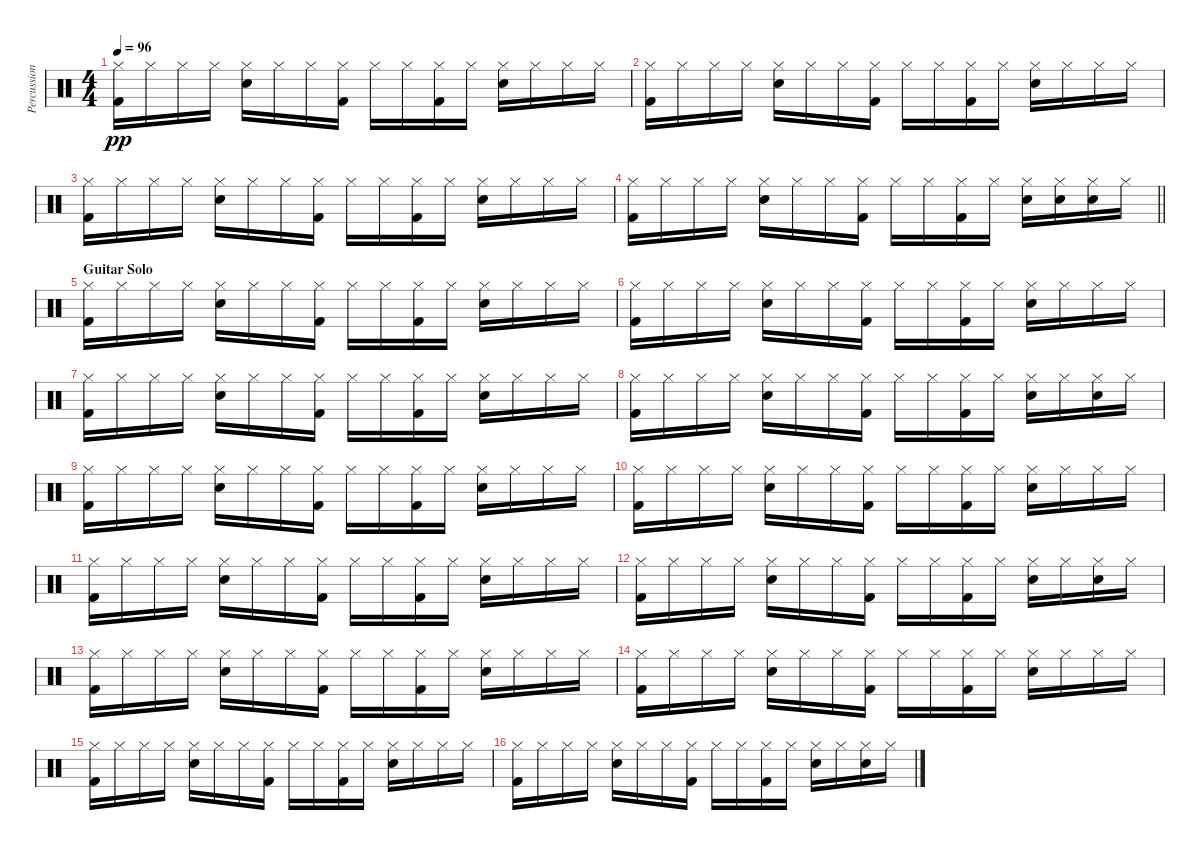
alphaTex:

\track ("Percussion" "Percussion") {instrument percussion}
\staff {score}
\articulation defaults
\ts (4 4)
\tempo 96
\clef neutral
\ks c
("Hi-Hat (closed)" "Kick (hit) 2").16{dy pp} "Hi-Hat (closed)".16 "Hi-Hat (closed)".16 "Hi-Hat (closed)".16 ("Hi-Hat (closed)" "Snare (hit) 2").16 "Hi-Hat (closed)".16 "Hi-Hat (closed)".16 ("Hi-Hat (closed)" "Kick (hit) 2").16 "Hi-Hat (closed)".16 "Hi-Hat (closed)".16 ("Hi-Hat (closed)" "Kick (hit) 2").16 "Hi-Hat (closed)".16 ("Hi-Hat (closed)" "Snare (hit) 2").16 "Hi-Hat (closed)".16 "Hi-Hat (closed)".16 "Hi-Hat (closed)".16 |
("Hi-Hat (closed)" "Kick (hit) 2").16 "Hi-Hat (closed)".16 "Hi-Hat (closed)".16 "Hi-Hat (closed)".16 ("Hi-Hat (closed)" "Snare (hit) 2").16 "Hi-Hat (closed)".16 "Hi-Hat (closed)".16 ("Hi-Hat (closed)" "Kick (hit) 2").16 "Hi-Hat (closed)".16 "Hi-Hat (closed)".16 ("Hi-Hat (closed)" "Kick (hit) 2").16 "Hi-Hat (closed)".16 ("Hi-Hat (closed)" "Snare (hit) 2").16 "Hi-Hat (closed)".16 "Hi-Hat (closed)".16 "Hi-Hat (closed)".16 |
("Hi-Hat (closed)" "Kick (hit) 2").16 "Hi-Hat (closed)".16 "Hi-Hat (closed)".16 "Hi-Hat (closed)".16 ("Hi-Hat (closed)" "Snare (hit) 2").16 "Hi-Hat (closed)".16 "Hi-Hat (closed)".16 ("Hi-Hat (closed)" "Kick (hit) 2").16 "Hi-Hat (closed)".16 "Hi-Hat (closed)".16 ("Hi-Hat (closed)" "Kick (hit) 2").16 "Hi-Hat (closed)".16 ("Hi-Hat (closed)" "Snare (hit) 2").16 "Hi-Hat (closed)".16 "Hi-Hat (closed)".16 "Hi-Hat (closed)".16 |
\barLineRight lightlight
("Hi-Hat (closed)" "Kick (hit) 2").16 "Hi-Hat (closed)".16 "Hi-Hat (closed)".16 "Hi-Hat (closed)".16 ("Hi-Hat (closed)" "Snare (hit) 2").16 "Hi-Hat (closed)".16 "Hi-Hat (closed)".16 ("Hi-Hat (closed)" "Kick (hit) 2").16 "Hi-Hat (closed)".16 "Hi-Hat (closed)".16 ("Hi-Hat (closed)" "Kick (hit) 2").16 "Hi-Hat (closed)".16 ("Hi-Hat (closed)" "Snare (hit) 2").16 ("Hi-Hat (closed)" "Snare (hit) 2").16 ("Hi-Hat (closed)" "Snare (hit) 2").16 "Hi-Hat (closed)".16 |
\section ("" "Guitar Solo")
("Hi-Hat (closed)" "Kick (hit) 2").16 "Hi-Hat (closed)".16 "Hi-Hat (closed)".16 "Hi-Hat (closed)".16 ("Hi-Hat (closed)" "Snare (hit) 2").16 "Hi-Hat (closed)".16 "Hi-Hat (closed)".16 ("Hi-Hat (closed)" "Kick (hit) 2").16 "Hi-Hat (closed)".16 "Hi-Hat (closed)".16 ("Hi-Hat (closed)" "Kick (hit) 2").16 "Hi-Hat (closed)".16 ("Hi-Hat (closed)" "Snare (hit) 2").16 "Hi-Hat (closed)".16 "Hi-Hat (closed)".16 "Hi-Hat (closed)".16 |
("Hi-Hat (closed)" "Kick (hit) 2").16 "Hi-Hat (closed)".16 "Hi-Hat (closed)".16 "Hi-Hat (closed)".16 ("Hi-Hat (closed)" "Snare (hit) 2").16 "Hi-Hat (closed)".16 "Hi-Hat (closed)".16 ("Hi-Hat (closed)" "Kick (hit) 2").16 "Hi-Hat (closed)".16 "Hi-Hat (closed)".16 ("Hi-Hat (closed)" "Kick (hit) 2").16 "Hi-Hat (closed)".16 ("Hi-Hat (closed)" "Snare (hit) 2").16 "Hi-Hat (closed)".16 "Hi-Hat (closed)".16 "Hi-Hat (closed)".16 |
("Hi-Hat (closed)" "Kick (hit) 2").16 "Hi-Hat (closed)".16 "Hi-Hat (closed)".16 "Hi-Hat (closed)".16 ("Hi-Hat (closed)" "Snare (hit) 2").16 "Hi-Hat (closed)".16 "Hi-Hat (closed)".16 ("Hi-Hat (closed)" "Kick (hit) 2").16 "Hi-Hat (closed)".16 "Hi-Hat (closed)".16 ("Hi-Hat (closed)" "Kick (hit) 2").16 "Hi-Hat (closed)".16 ("Hi-Hat (closed)" "Snare (hit) 2").16 "Hi-Hat (closed)".16 "Hi-Hat (closed)".16 "Hi-Hat (closed)".16 |
("Hi-Hat (closed)" "Kick (hit) 2").16 "Hi-Hat (closed)".16 "Hi-Hat (closed)".16 "Hi-Hat (closed)".16 ("Hi-Hat (closed)" "Snare (hit) 2").16 "Hi-Hat (closed)".16 "Hi-Hat (closed)".16 ("Hi-Hat (closed)" "Kick (hit) 2").16 "Hi-Hat (closed)".16 "Hi-Hat (closed)".16 ("Hi-Hat (closed)" "Kick (hit) 2").16 "Hi-Hat (closed)".16 ("Hi-Hat (closed)" "Snare (hit) 2").16 "Hi-Hat (closed)".16 ("Hi-Hat (closed)" "Snare (hit) 2").16 "Hi-Hat (closed)".16 |
("Hi-Hat (closed)" "Kick (hit) 2").16 "Hi-Hat (closed)".16 "Hi-Hat (closed)".16 "Hi-Hat (closed)".16 ("Hi-Hat (closed)" "Snare (hit) 2").16 "Hi-Hat (closed)".16 "Hi-Hat (closed)".16 ("Hi-Hat (closed)" "Kick (hit) 2").16 "Hi-Hat (closed)".16 "Hi-Hat (closed)".16 ("Hi-Hat (closed)" "Kick (hit) 2").16 "Hi-Hat (closed)".16 ("Hi-Hat (closed)" "Snare (hit) 2").16 "Hi-Hat (closed)".16 "Hi-Hat (closed)".16 "Hi-Hat (closed)".16 |
("Hi-Hat (closed)" "Kick (hit) 2").16 "Hi-Hat (closed)".16 "Hi-Hat (closed)".16 "Hi-Hat (closed)".16 ("Hi-Hat (closed)" "Snare (hit) 2").16 "Hi-Hat (closed)".16 "Hi-Hat (closed)".16 ("Hi-Hat (closed)" "Kick (hit) 2").16 "Hi-Hat (closed)".16 "Hi-Hat (closed)".16 ("Hi-Hat (closed)" "Kick (hit) 2").16 "Hi-Hat (closed)".16 ("Hi-Hat (closed)" "Snare (hit) 2").16 "Hi-Hat (closed)".16 "Hi-Hat (closed)".16 "Hi-Hat (closed)".16 |
("Hi-Hat (closed)" "Kick (hit) 2").16 "Hi-Hat (closed)".16 "Hi-Hat (closed)".16 "Hi-Hat (closed)".16 ("Hi-Hat (closed)" "Snare (hit) 2").16 "Hi-Hat (closed)".16 "Hi-Hat (closed)".16 ("Hi-Hat (closed)" "Kick (hit) 2").16 "Hi-Hat (closed)".16 "Hi-Hat (closed)".16 ("Hi-Hat (closed)" "Kick (hit) 2").16 "Hi-Hat (closed)".16 ("Hi-Hat (closed)" "Snare (hit) 2").16 "Hi-Hat (closed)".16 "Hi-Hat (closed)".16 "Hi-Hat (closed)".16 |
("Hi-Hat (closed)" "Kick (hit) 2").16 "Hi-Hat (closed)".16 "Hi-Hat (closed)".16 "Hi-Hat (closed)".16 ("Hi-Hat (closed)" "Snare (hit) 2").16 "Hi-Hat (closed)".16 "Hi-Hat (closed)".16 ("Hi-Hat (closed)" "Kick (hit) 2").16 "Hi-Hat (closed)".16 "Hi-Hat (closed)".16 ("Hi-Hat (closed)" "Kick (hit) 2").16 "Hi-Hat (closed)".16 ("Hi-Hat (closed)" "Snare (hit) 2").16 "Hi-Hat (closed)".16 ("Hi-Hat (closed)" "Snare (hit) 2").16 "Hi-Hat (closed)".16 |
("Hi-Hat (closed)" "Kick (hit) 2").16 "Hi-Hat (closed)".16 "Hi-Hat (closed)".16 "Hi-Hat (closed)".16 ("Hi-Hat (closed)" "Snare (hit) 2").16 "Hi-Hat (closed)".16 "Hi-Hat (closed)".16 ("Hi-Hat (closed)" "Kick (hit) 2").16 "Hi-Hat (closed)".16 "Hi-Hat (closed)".16 ("Hi-Hat (closed)" "Kick (hit) 2").16 "Hi-Hat (closed)".16 ("Hi-Hat (closed)" "Snare (hit) 2").16 "Hi-Hat (closed)".16 "Hi-Hat (closed)".16 "Hi-Hat (closed)".16 |
("Hi-Hat (closed)" "Kick (hit) 2").16 "Hi-Hat (closed)".16 "Hi-Hat (closed)".16 "Hi-Hat (closed)".16 ("Hi-Hat (closed)" "Snare (hit) 2").16 "Hi-Hat (closed)".16 "Hi-Hat (closed)".16 ("Hi-Hat (closed)" "Kick (hit) 2").16 "Hi-Hat (closed)".16 "Hi-Hat (closed)".16 ("Hi-Hat (closed)" "Kick (hit) 2").16 "Hi-Hat (closed)".16 ("Hi-Hat (closed)" "Snare (hit) 2").16 "Hi-Hat (closed)".16 "Hi-Hat (closed)".16 "Hi-Hat (closed)".16 |
("Hi-Hat (closed)" "Kick (hit) 2").16 "Hi-Hat (closed)".16 "Hi-Hat (closed)".16 "Hi-Hat (closed)".16 ("Hi-Hat (closed)" "Snare (hit) 2").16 "Hi-Hat (closed)".16 "Hi-Hat (closed)".16 ("Hi-Hat (closed)" "Kick (hit) 2").16 "Hi-Hat (closed)".16 "Hi-Hat (closed)".16 ("Hi-Hat (closed)" "Kick (hit) 2").16 "Hi-Hat (closed)".16 ("Hi-Hat (closed)" "Snare (hit) 2").16 "Hi-Hat (closed)".16 "Hi-Hat (closed)".16 "Hi-Hat (closed)".16 |
("Hi-Hat (closed)" "Kick (hit) 2").16 "Hi-Hat (closed)".16 "Hi-Hat (closed)".16 "Hi-Hat (closed)".16 ("Hi-Hat (closed)" "Snare (hit) 2").16 "Hi-Hat (closed)".16 "Hi-Hat (closed)".16 ("Hi-Hat (closed)" "Kick (hit) 2").16 "Hi-Hat (closed)".16 "Hi-Hat (closed)".16 ("Hi-Hat (closed)" "Kick (hit) 2").16 "Hi-Hat (closed)".16 ("Hi-Hat (closed)" "Snare (hit) 2").16 "Hi-Hat (closed)".16 ("Hi-Hat (closed)" "Snare (hit) 2").16 "Hi-Hat (closed)".16
